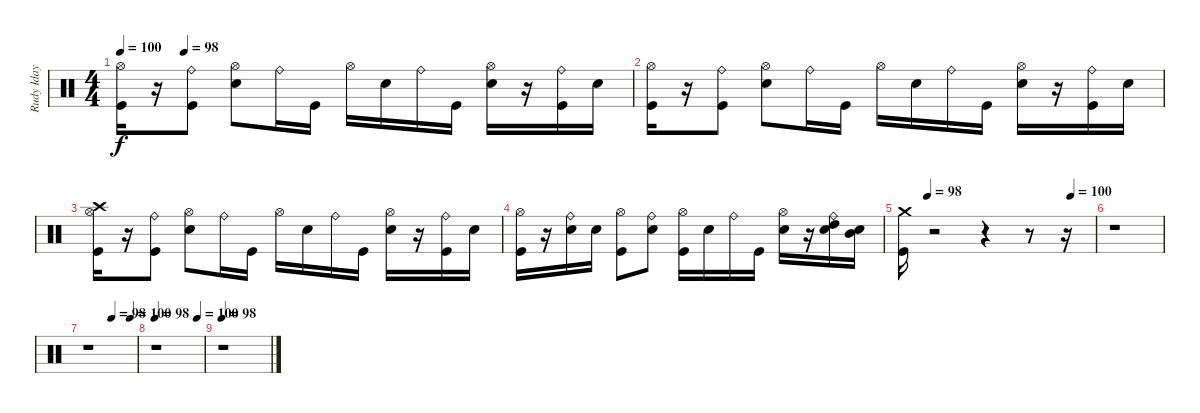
\track ("Rudy Iday" "Rudy Iday") {instrument percussion}
\staff {score}
\articulation defaults
\ts (4 4)
\tempo 100
\tempo (98 0.125)
\clef neutral
\ks c
("Kick (hit)" "Hi-Hat (open)").16{dy f} r.16 ("Ride (bell)" "Kick (hit)").8 ("Electric Snare (hit)" "Hi-Hat (open)").8 "Ride (bell)".16 "Kick (hit)".16 "Hi-Hat (open)".16 "Electric Snare (hit)".16 "Ride (bell)".16 "Kick (hit)".16 ("Electric Snare (hit)" "Hi-Hat (open)").16 r.16 ("Ride (bell)" "Kick (hit)").16 "Electric Snare (hit)".16 |
("Kick (hit)" "Hi-Hat (open)").16 r.16 ("Kick (hit)" "Ride (bell)").8 ("Electric Snare (hit)" "Hi-Hat (open)").8 "Ride (bell)".16 "Kick (hit)".16 "Hi-Hat (open)".16 "Electric Snare (hit)".16 "Ride (bell)".16 "Kick (hit)".16 ("Electric Snare (hit)" "Hi-Hat (open)").16 r.16 ("Ride (bell)" "Kick (hit)").16 "Electric Snare (hit)".16 |
("Hi-Hat (open)" "Crash high (hit)" "Kick (hit)").16 r.16 ("Ride (bell)" "Kick (hit)").8 ("Electric Snare (hit)" "Hi-Hat (open)").8 "Ride (bell)".16 "Kick (hit)".16 "Hi-Hat (open)".16 "Electric Snare (hit)".16 "Ride (bell)".16 "Kick (hit)".16 ("Electric Snare (hit)" "Hi-Hat (open)").16 r.16 ("Kick (hit)" "Ride (bell)").16 "Electric Snare (hit)".16 |
("Kick (hit)" "Hi-Hat (open)").16 r.16 ("Electric Snare (hit)" "Ride (bell)").16 "Electric Snare (hit)".16 ("Kick (hit)" "Hi-Hat (open)").8 ("Electric Snare (hit)" "Ride (bell)").8 ("Hi-Hat (open)" "Kick (hit)").16 "Electric Snare (hit)".16 "Ride (bell)".16 "Kick (hit)".16 ("Electric Snare (hit)" "Hi-Hat (open)").16 r.16 ("Electric Snare (hit)" "Ride (bell)" "High Tom (hit)").16 ("Mid Tom (hit)" "Electric Snare (hit)").16 |
\tempo (98 0.125)
\tempo (100 0.875)
("Crash medium (hit)" "Kick (hit)").16 r.2 r.4 r.8 r.16 |
r.1 |
\tempo (98 0.5)
\tempo (100 0.875)
r.1 |
\tempo 98
\tempo (100 0.875)
r.1 |
\tempo 98
r.1
